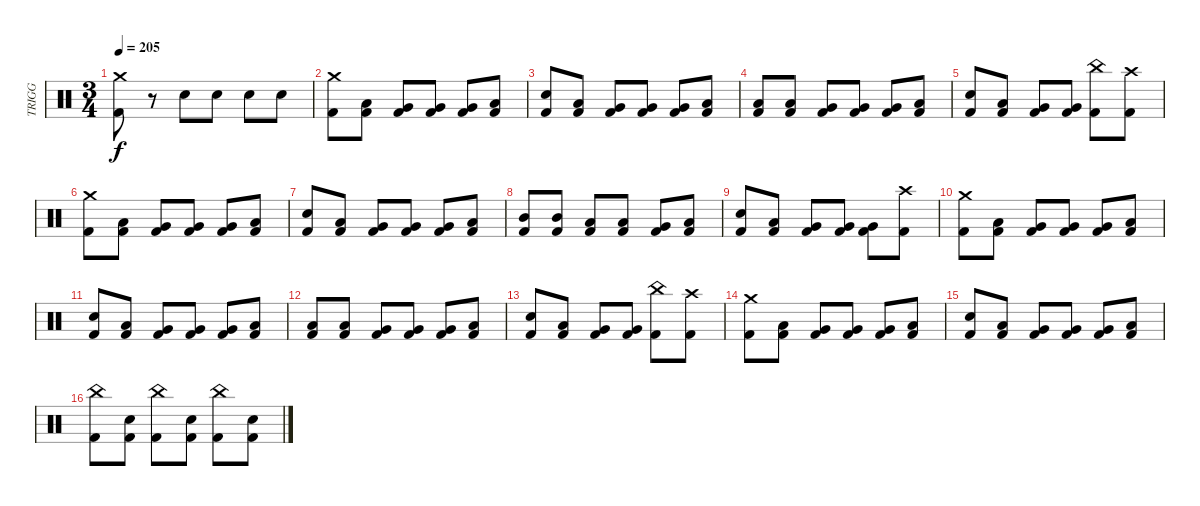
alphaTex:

\track ("TRIGG" "TRIGG") {instrument percussion}
\staff {score}
\articulation defaults
\ts (3 4)
\tempo 205
\clef neutral
\ks c
("Crash medium (hit)" "Kick (hit) 2").8{dy f} r.8 "Electric Snare (hit)".8 "Electric Snare (hit)".8 "Electric Snare (hit)".8 "Electric Snare (hit)".8 |
("Crash medium (hit)" "Kick (hit) 2").8 ("Low Tom (hit)" "Kick (hit) 2").8 ("Very Low Tom (hit)" "Kick (hit) 2").8 ("Very Low Tom (hit)" "Kick (hit) 2").8 ("Very Low Tom (hit)" "Kick (hit) 2").8 ("Low Tom (hit)" "Kick (hit) 2").8 |
("Electric Snare (hit)" "Kick (hit) 2").8 ("Low Tom (hit)" "Kick (hit) 2").8 ("Very Low Tom (hit)" "Kick (hit) 2").8 ("Very Low Tom (hit)" "Kick (hit) 2").8 ("Very Low Tom (hit)" "Kick (hit) 2").8 ("Low Tom (hit)" "Kick (hit) 2").8 |
("Low Tom (hit)" "Kick (hit) 2").8 ("Low Tom (hit)" "Kick (hit) 2").8 ("Very Low Tom (hit)" "Kick (hit) 2").8 ("Very Low Tom (hit)" "Kick (hit) 2").8 ("Very Low Tom (hit)" "Kick (hit) 2").8 ("Low Tom (hit)" "Kick (hit) 2").8 |
("Electric Snare (hit)" "Kick (hit) 2").8 ("Low Tom (hit)" "Kick (hit) 2").8 ("Very Low Tom (hit)" "Kick (hit) 2").8 ("Very Low Tom (hit)" "Kick (hit) 2").8 ("China (hit)" "Kick (hit) 2").8 ("Crash high (hit)" "Kick (hit) 2").8 |
("Crash medium (hit)" "Kick (hit) 2").8 ("Low Tom (hit)" "Kick (hit) 2").8 ("Very Low Tom (hit)" "Kick (hit) 2").8 ("Very Low Tom (hit)" "Kick (hit) 2").8 ("Very Low Tom (hit)" "Kick (hit) 2").8 ("Low Tom (hit)" "Kick (hit) 2").8 |
("Electric Snare (hit)" "Kick (hit) 2").8 ("Low Tom (hit)" "Kick (hit) 2").8 ("Very Low Tom (hit)" "Kick (hit) 2").8 ("Very Low Tom (hit)" "Kick (hit) 2").8 ("Very Low Tom (hit)" "Kick (hit) 2").8 ("Low Tom (hit)" "Kick (hit) 2").8 |
("Mid Tom (hit)" "Kick (hit) 2").8 ("Mid Tom (hit)" "Kick (hit) 2").8 ("Low Tom (hit)" "Kick (hit) 2").8 ("Low Tom (hit)" "Kick (hit) 2").8 ("Very Low Tom (hit)" "Kick (hit) 2").8 ("Low Tom (hit)" "Kick (hit) 2").8 |
("Electric Snare (hit)" "Kick (hit) 2").8 ("Low Tom (hit)" "Kick (hit) 2").8 ("Very Low Tom (hit)" "Kick (hit) 2").8 ("Very Low Tom (hit)" "Kick (hit) 2").8 ("Very Low Tom (hit)" "Kick (hit) 2").8 ("Crash high (hit)" "Kick (hit) 2").8 |
("Crash medium (hit)" "Kick (hit) 2").8 ("Low Tom (hit)" "Kick (hit) 2").8 ("Very Low Tom (hit)" "Kick (hit) 2").8 ("Very Low Tom (hit)" "Kick (hit) 2").8 ("Very Low Tom (hit)" "Kick (hit) 2").8 ("Low Tom (hit)" "Kick (hit) 2").8 |
("Electric Snare (hit)" "Kick (hit) 2").8 ("Low Tom (hit)" "Kick (hit) 2").8 ("Very Low Tom (hit)" "Kick (hit) 2").8 ("Very Low Tom (hit)" "Kick (hit) 2").8 ("Very Low Tom (hit)" "Kick (hit) 2").8 ("Low Tom (hit)" "Kick (hit) 2").8 |
("Low Tom (hit)" "Kick (hit) 2").8 ("Low Tom (hit)" "Kick (hit) 2").8 ("Very Low Tom (hit)" "Kick (hit) 2").8 ("Very Low Tom (hit)" "Kick (hit) 2").8 ("Very Low Tom (hit)" "Kick (hit) 2").8 ("Low Tom (hit)" "Kick (hit) 2").8 |
("Electric Snare (hit)" "Kick (hit) 2").8 ("Low Tom (hit)" "Kick (hit) 2").8 ("Very Low Tom (hit)" "Kick (hit) 2").8 ("Very Low Tom (hit)" "Kick (hit) 2").8 ("China (hit)" "Kick (hit) 2").8 ("Crash high (hit)" "Kick (hit) 2").8 |
("Crash medium (hit)" "Kick (hit) 2").8 ("Low Tom (hit)" "Kick (hit) 2").8 ("Very Low Tom (hit)" "Kick (hit) 2").8 ("Very Low Tom (hit)" "Kick (hit) 2").8 ("Very Low Tom (hit)" "Kick (hit) 2").8 ("Low Tom (hit)" "Kick (hit) 2").8 |
("Electric Snare (hit)" "Kick (hit) 2").8 ("Low Tom (hit)" "Kick (hit) 2").8 ("Very Low Tom (hit)" "Kick (hit) 2").8 ("Very Low Tom (hit)" "Kick (hit) 2").8 ("Very Low Tom (hit)" "Kick (hit) 2").8 ("Low Tom (hit)" "Kick (hit) 2").8 |
("China (hit)" "Kick (hit) 2").8 ("Electric Snare (hit)" "Kick (hit) 2").8 ("China (hit)" "Kick (hit) 2").8 ("Electric Snare (hit)" "Kick (hit) 2").8 ("China (hit)" "Kick (hit) 2").8 ("Electric Snare (hit)" "Kick (hit) 2").8
